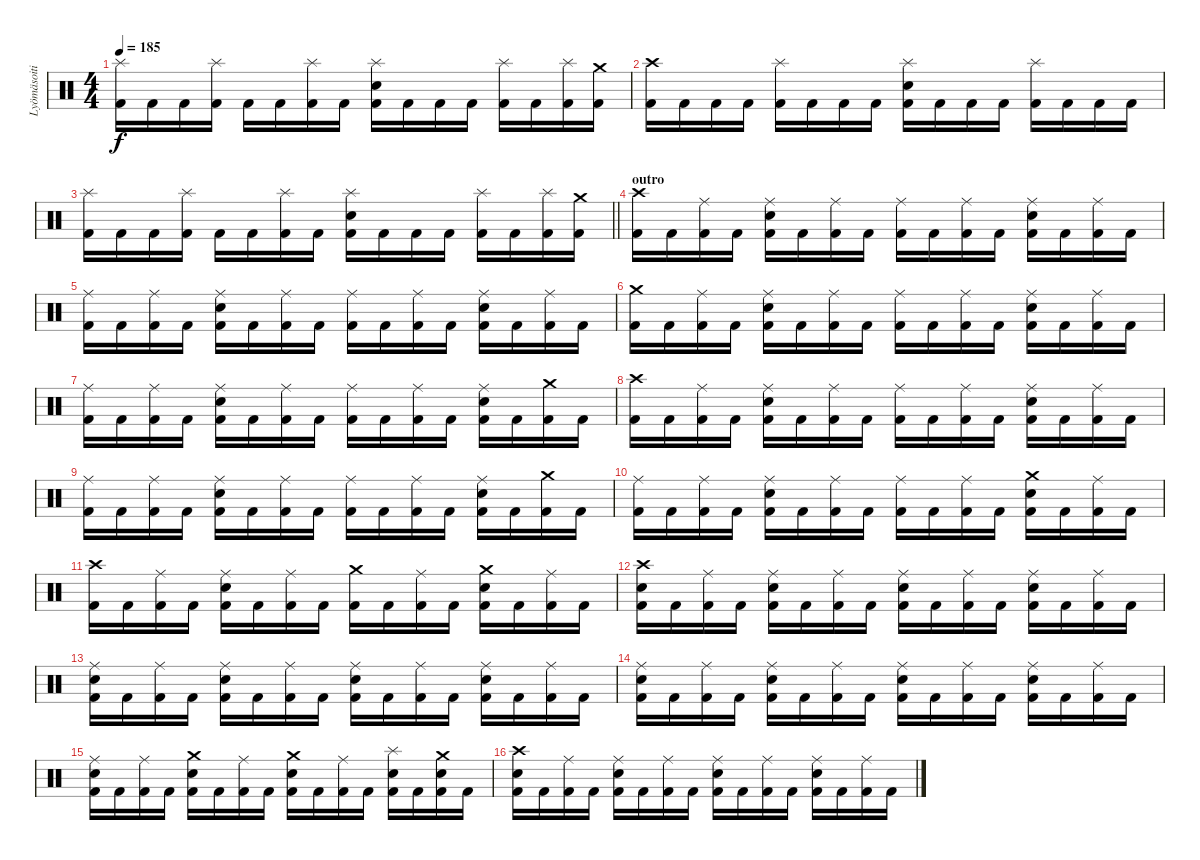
\track ("Lyömäsoitin" "Lyömäsoiti") {instrument percussion}
\staff {score}
\articulation defaults
\ts (4 4)
\tempo 185
\clef neutral
\ks c
("Splash (hit)" "Kick (hit) 2").16{dy f} "Kick (hit) 2".16 "Kick (hit) 2".16 ("Splash (hit)" "Kick (hit) 2").16 "Kick (hit) 2".16 "Kick (hit) 2".16 ("Splash (hit)" "Kick (hit) 2").16 "Kick (hit) 2".16 ("Splash (hit)" "Electric Snare (hit)" "Kick (hit) 2").16 "Kick (hit) 2".16 "Kick (hit) 2".16 "Kick (hit) 2".16 ("Splash (hit)" "Kick (hit) 2").16 "Kick (hit) 2".16 ("Splash (hit)" "Kick (hit) 2").16 ("Crash medium (hit)" "Kick (hit) 2").16 |
("Crash high (hit)" "Kick (hit) 2").16 "Kick (hit) 2".16 "Kick (hit) 2".16 "Kick (hit) 2".16 ("Splash (hit)" "Kick (hit) 2").16 "Kick (hit) 2".16 "Kick (hit) 2".16 "Kick (hit) 2".16 ("Splash (hit)" "Electric Snare (hit)" "Kick (hit) 2").16 "Kick (hit) 2".16 "Kick (hit) 2".16 "Kick (hit) 2".16 ("Splash (hit)" "Kick (hit) 2").16 "Kick (hit) 2".16 "Kick (hit) 2".16 "Kick (hit) 2".16 |
\barLineRight lightlight
("Splash (hit)" "Kick (hit) 2").16 "Kick (hit) 2".16 "Kick (hit) 2".16 ("Splash (hit)" "Kick (hit) 2").16 "Kick (hit) 2".16 "Kick (hit) 2".16 ("Splash (hit)" "Kick (hit) 2").16 "Kick (hit) 2".16 ("Splash (hit)" "Electric Snare (hit)" "Kick (hit) 2").16 "Kick (hit) 2".16 "Kick (hit) 2".16 "Kick (hit) 2".16 ("Splash (hit)" "Kick (hit) 2").16 "Kick (hit) 2".16 ("Splash (hit)" "Kick (hit) 2").16 ("Crash medium (hit)" "Kick (hit) 2").16 |
\section ("" "outro")
("Crash high (hit)" "Kick (hit) 2").16 "Kick (hit) 2".16 ("Ride (middle)" "Kick (hit) 2").16 "Kick (hit) 2".16 ("Ride (middle)" "Electric Snare (hit)" "Kick (hit) 2").16 "Kick (hit) 2".16 ("Ride (middle)" "Kick (hit) 2").16 "Kick (hit) 2".16 ("Ride (middle)" "Kick (hit) 2").16 "Kick (hit) 2".16 ("Ride (middle)" "Kick (hit) 2").16 "Kick (hit) 2".16 ("Ride (middle)" "Electric Snare (hit)" "Kick (hit) 2").16 "Kick (hit) 2".16 ("Ride (middle)" "Kick (hit) 2").16 "Kick (hit) 2".16 |
("Ride (middle)" "Kick (hit) 2").16 "Kick (hit) 2".16 ("Ride (middle)" "Kick (hit) 2").16 "Kick (hit) 2".16 ("Ride (middle)" "Electric Snare (hit)" "Kick (hit) 2").16 "Kick (hit) 2".16 ("Ride (middle)" "Kick (hit) 2").16 "Kick (hit) 2".16 ("Ride (middle)" "Kick (hit) 2").16 "Kick (hit) 2".16 ("Ride (middle)" "Kick (hit) 2").16 "Kick (hit) 2".16 ("Ride (middle)" "Electric Snare (hit)" "Kick (hit) 2").16 "Kick (hit) 2".16 ("Ride (middle)" "Kick (hit) 2").16 "Kick (hit) 2".16 |
("Crash medium (hit)" "Kick (hit) 2").16 "Kick (hit) 2".16 ("Ride (middle)" "Kick (hit) 2").16 "Kick (hit) 2".16 ("Ride (middle)" "Electric Snare (hit)" "Kick (hit) 2").16 "Kick (hit) 2".16 ("Ride (middle)" "Kick (hit) 2").16 "Kick (hit) 2".16 ("Ride (middle)" "Kick (hit) 2").16 "Kick (hit) 2".16 ("Ride (middle)" "Kick (hit) 2").16 "Kick (hit) 2".16 ("Ride (middle)" "Electric Snare (hit)" "Kick (hit) 2").16 "Kick (hit) 2".16 ("Ride (middle)" "Kick (hit) 2").16 "Kick (hit) 2".16 |
("Ride (middle)" "Kick (hit) 2").16 "Kick (hit) 2".16 ("Ride (middle)" "Kick (hit) 2").16 "Kick (hit) 2".16 ("Ride (middle)" "Electric Snare (hit)" "Kick (hit) 2").16 "Kick (hit) 2".16 ("Ride (middle)" "Kick (hit) 2").16 "Kick (hit) 2".16 ("Ride (middle)" "Kick (hit) 2").16 "Kick (hit) 2".16 ("Ride (middle)" "Kick (hit) 2").16 "Kick (hit) 2".16 ("Ride (middle)" "Electric Snare (hit)" "Kick (hit) 2").16 "Kick (hit) 2".16 ("Crash medium (hit)" "Kick (hit) 2").16 "Kick (hit) 2".16 |
("Crash high (hit)" "Kick (hit) 2").16 "Kick (hit) 2".16 ("Ride (middle)" "Kick (hit) 2").16 "Kick (hit) 2".16 ("Ride (middle)" "Electric Snare (hit)" "Kick (hit) 2").16 "Kick (hit) 2".16 ("Ride (middle)" "Kick (hit) 2").16 "Kick (hit) 2".16 ("Ride (middle)" "Kick (hit) 2").16 "Kick (hit) 2".16 ("Ride (middle)" "Kick (hit) 2").16 "Kick (hit) 2".16 ("Ride (middle)" "Electric Snare (hit)" "Kick (hit) 2").16 "Kick (hit) 2".16 ("Ride (middle)" "Kick (hit) 2").16 "Kick (hit) 2".16 |
("Ride (middle)" "Kick (hit) 2").16 "Kick (hit) 2".16 ("Ride (middle)" "Kick (hit) 2").16 "Kick (hit) 2".16 ("Ride (middle)" "Electric Snare (hit)" "Kick (hit) 2").16 "Kick (hit) 2".16 ("Ride (middle)" "Kick (hit) 2").16 "Kick (hit) 2".16 ("Ride (middle)" "Kick (hit) 2").16 "Kick (hit) 2".16 ("Ride (middle)" "Kick (hit) 2").16 "Kick (hit) 2".16 ("Ride (middle)" "Electric Snare (hit)" "Kick (hit) 2").16 "Kick (hit) 2".16 ("Crash medium (hit)" "Kick (hit) 2").16 "Kick (hit) 2".16 |
("Ride (middle)" "Kick (hit) 2").16 "Kick (hit) 2".16 ("Ride (middle)" "Kick (hit) 2").16 "Kick (hit) 2".16 ("Ride (middle)" "Electric Snare (hit)" "Kick (hit) 2").16 "Kick (hit) 2".16 ("Ride (middle)" "Kick (hit) 2").16 "Kick (hit) 2".16 ("Ride (middle)" "Kick (hit) 2").16 "Kick (hit) 2".16 ("Ride (middle)" "Kick (hit) 2").16 "Kick (hit) 2".16 ("Crash medium (hit)" "Electric Snare (hit)" "Kick (hit) 2").16 "Kick (hit) 2".16 ("Ride (middle)" "Kick (hit) 2").16 "Kick (hit) 2".16 |
("Crash high (hit)" "Kick (hit) 2").16 "Kick (hit) 2".16 ("Ride (middle)" "Kick (hit) 2").16 "Kick (hit) 2".16 ("Ride (middle)" "Electric Snare (hit)" "Kick (hit) 2").16 "Kick (hit) 2".16 ("Ride (middle)" "Kick (hit) 2").16 "Kick (hit) 2".16 ("Crash medium (hit)" "Kick (hit) 2").16 "Kick (hit) 2".16 ("Ride (middle)" "Kick (hit) 2").16 "Kick (hit) 2".16 ("Crash medium (hit)" "Electric Snare (hit)" "Kick (hit) 2").16 "Kick (hit) 2".16 ("Ride (middle)" "Kick (hit) 2").16 "Kick (hit) 2".16 |
("Crash high (hit)" "Electric Snare (hit)" "Kick (hit) 2").16 "Kick (hit) 2".16 ("Ride (middle)" "Kick (hit) 2").16 "Kick (hit) 2".16 ("Ride (middle)" "Electric Snare (hit)" "Kick (hit) 2").16 "Kick (hit) 2".16 ("Ride (middle)" "Kick (hit) 2").16 "Kick (hit) 2".16 ("Ride (middle)" "Electric Snare (hit)" "Kick (hit) 2").16 "Kick (hit) 2".16 ("Ride (middle)" "Kick (hit) 2").16 "Kick (hit) 2".16 ("Ride (middle)" "Electric Snare (hit)" "Kick (hit) 2").16 "Kick (hit) 2".16 ("Ride (middle)" "Kick (hit) 2").16 "Kick (hit) 2".16 |
("Ride (middle)" "Electric Snare (hit)" "Kick (hit) 2").16 "Kick (hit) 2".16 ("Ride (middle)" "Kick (hit) 2").16 "Kick (hit) 2".16 ("Ride (middle)" "Electric Snare (hit)" "Kick (hit) 2").16 "Kick (hit) 2".16 ("Ride (middle)" "Kick (hit) 2").16 "Kick (hit) 2".16 ("Ride (middle)" "Electric Snare (hit)" "Kick (hit) 2").16 "Kick (hit) 2".16 ("Ride (middle)" "Kick (hit) 2").16 "Kick (hit) 2".16 ("Ride (middle)" "Electric Snare (hit)" "Kick (hit) 2").16 "Kick (hit) 2".16 ("Ride (middle)" "Kick (hit) 2").16 "Kick (hit) 2".16 |
("Ride (middle)" "Electric Snare (hit)" "Kick (hit) 2").16 "Kick (hit) 2".16 ("Ride (middle)" "Kick (hit) 2").16 "Kick (hit) 2".16 ("Ride (middle)" "Electric Snare (hit)" "Kick (hit) 2").16 "Kick (hit) 2".16 ("Ride (middle)" "Kick (hit) 2").16 "Kick (hit) 2".16 ("Ride (middle)" "Electric Snare (hit)" "Kick (hit) 2").16 "Kick (hit) 2".16 ("Ride (middle)" "Kick (hit) 2").16 "Kick (hit) 2".16 ("Ride (middle)" "Electric Snare (hit)" "Kick (hit) 2").16 "Kick (hit) 2".16 ("Ride (middle)" "Kick (hit) 2").16 "Kick (hit) 2".16 |
("Ride (middle)" "Electric Snare (hit)" "Kick (hit) 2").16 "Kick (hit) 2".16 ("Ride (middle)" "Kick (hit) 2").16 "Kick (hit) 2".16 ("Crash medium (hit)" "Electric Snare (hit)" "Kick (hit) 2").16 "Kick (hit) 2".16 ("Ride (middle)" "Kick (hit) 2").16 "Kick (hit) 2".16 ("Crash medium (hit)" "Electric Snare (hit)" "Kick (hit) 2").16 "Kick (hit) 2".16 ("Ride (middle)" "Kick (hit) 2").16 "Kick (hit) 2".16 ("Splash (hit)" "Electric Snare (hit)" "Kick (hit) 2").16 "Kick (hit) 2".16 ("Crash medium (hit)" "Electric Snare (hit)" "Kick (hit) 2").16 "Kick (hit) 2".16 |
("Crash high (hit)" "Electric Snare (hit)" "Kick (hit) 2").16 "Kick (hit) 2".16 ("Ride (middle)" "Kick (hit) 2").16 "Kick (hit) 2".16 ("Ride (middle)" "Electric Snare (hit)" "Kick (hit) 2").16 "Kick (hit) 2".16 ("Ride (middle)" "Kick (hit) 2").16 "Kick (hit) 2".16 ("Ride (middle)" "Electric Snare (hit)" "Kick (hit) 2").16 "Kick (hit) 2".16 ("Ride (middle)" "Kick (hit) 2").16 "Kick (hit) 2".16 ("Ride (middle)" "Electric Snare (hit)" "Kick (hit) 2").16 "Kick (hit) 2".16 ("Ride (middle)" "Kick (hit) 2").16 "Kick (hit) 2".16
